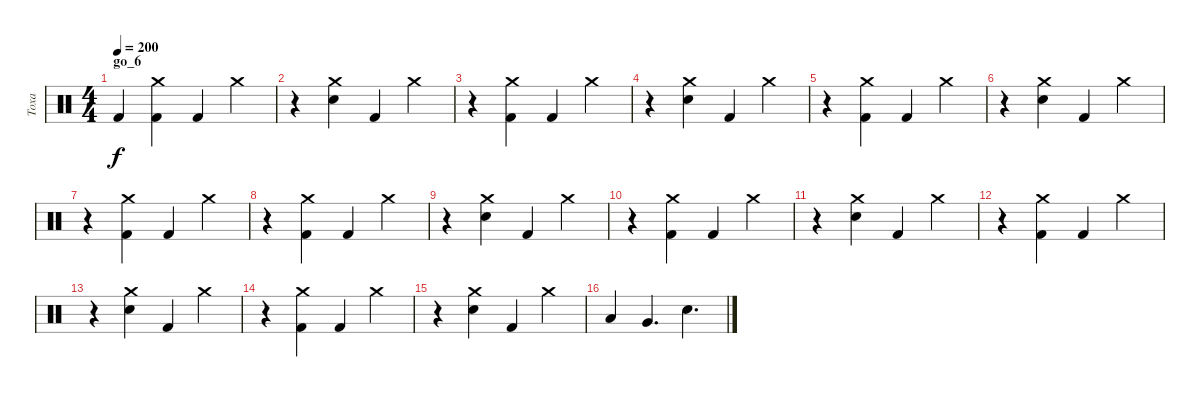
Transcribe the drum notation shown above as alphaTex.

\track ("Toxa" "Toxa") {instrument percussion}
\staff {score}
\articulation defaults
\ts (4 4)
\section ("" "go_6")
\tempo 200
\clef neutral
\ks c "Kick (hit) 2".4{dy f}
("Kick (hit) 2" "Crash medium (hit)").4 "Kick (hit) 2".4 "Crash medium (hit)".4 |
r.4 ("Crash medium (hit)" "Electric Snare (hit)").4 "Kick (hit) 2".4 "Crash medium (hit)".4 |
r.4 ("Crash medium (hit)" "Kick (hit) 2").4 "Kick (hit) 2".4 "Crash medium (hit)".4 |
r.4 ("Crash medium (hit)" "Electric Snare (hit)").4 "Kick (hit) 2".4 "Crash medium (hit)".4 |
r.4 ("Crash medium (hit)" "Kick (hit) 2").4 "Kick (hit) 2".4 "Crash medium (hit)".4 |
r.4 ("Crash medium (hit)" "Electric Snare (hit)").4 "Kick (hit) 2".4 "Crash medium (hit)".4 |
r.4 ("Crash medium (hit)" "Kick (hit) 2").4 "Kick (hit) 2".4 "Crash medium (hit)".4 |
r.4 ("Crash medium (hit)" "Kick (hit) 2").4 "Kick (hit) 2".4 "Crash medium (hit)".4 |
r.4 ("Crash medium (hit)" "Electric Snare (hit)").4 "Kick (hit) 2".4 "Crash medium (hit)".4 |
r.4 ("Crash medium (hit)" "Kick (hit) 2").4 "Kick (hit) 2".4 "Crash medium (hit)".4 |
r.4 ("Crash medium (hit)" "Electric Snare (hit)").4 "Kick (hit) 2".4 "Crash medium (hit)".4 |
r.4 ("Crash medium (hit)" "Kick (hit) 2").4 "Kick (hit) 2".4 "Crash medium (hit)".4 |
r.4 ("Crash medium (hit)" "Electric Snare (hit)").4 "Kick (hit) 2".4 "Crash medium (hit)".4 |
r.4 ("Crash medium (hit)" "Kick (hit) 2").4 "Kick (hit) 2".4 "Crash medium (hit)".4 |
r.4 ("Crash medium (hit)" "Electric Snare (hit)").4 "Kick (hit) 2".4 "Crash medium (hit)".4 |
"Low Tom (hit)".4 "Very Low Tom (hit)".4{d} "Electric Snare (hit)".4{d}
